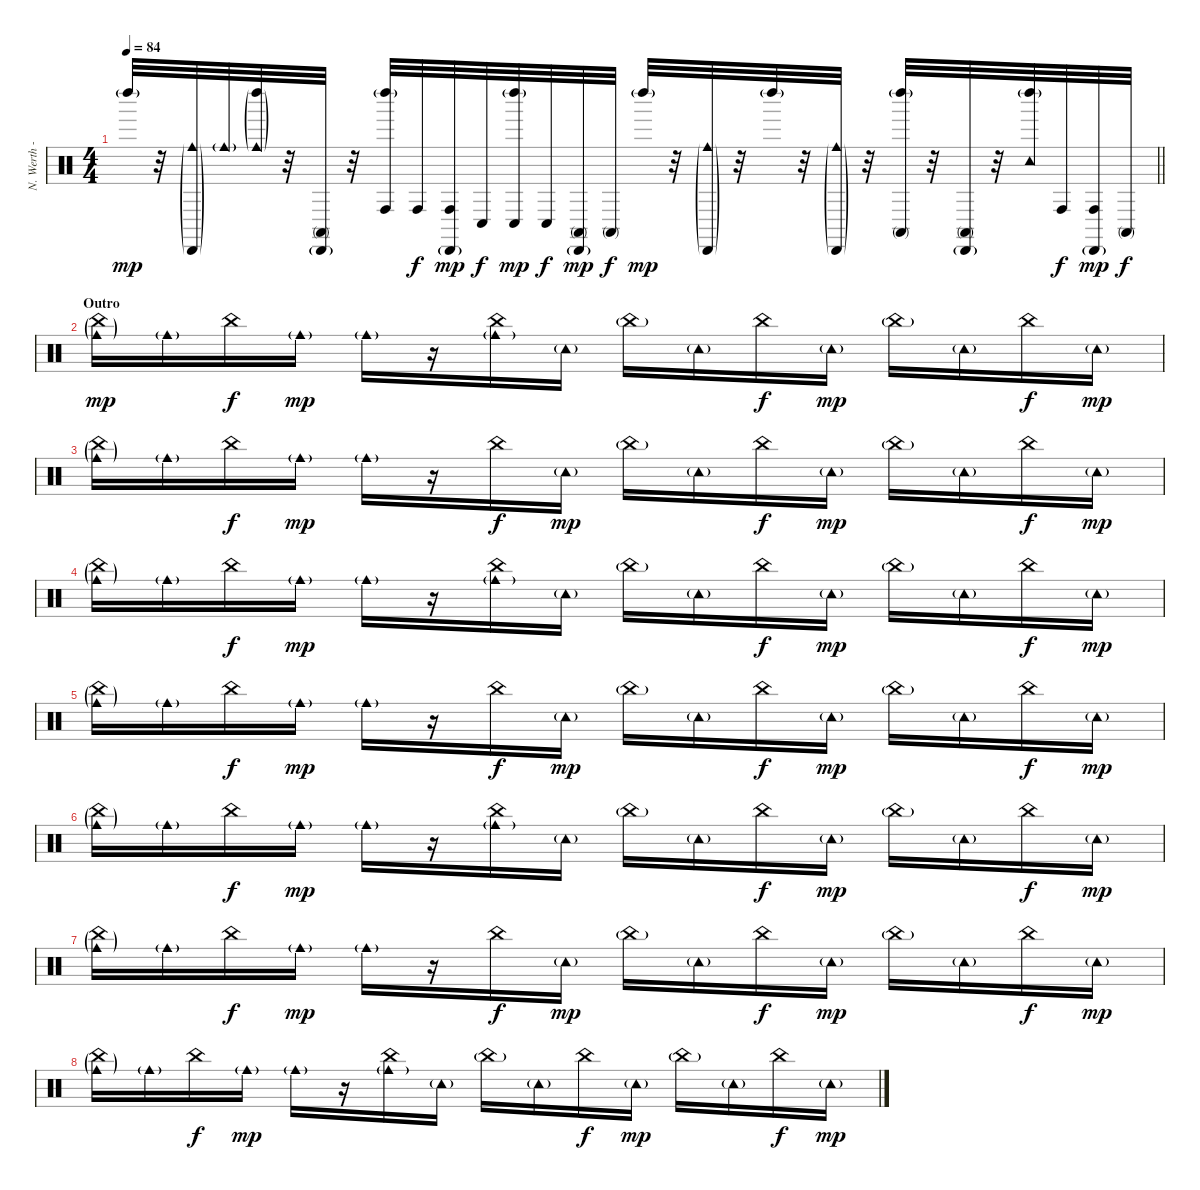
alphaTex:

\track ("N. Werth - Percussion" "N. Werth -") {instrument percussion}
\staff {score}
\articulation defaults
\ts (4 4)
\tempo 84
\clef neutral
\barLineRight lightlight
\ks c "Left Maraca (hit)"{g}.32{dy mp}
r.32 ("Cabasa (hit)"{g} "Cowbell medium (hit)"{g}).32 "Cowbell medium (hit)"{g}.32 ("Left Maraca (hit)"{g} "Cowbell medium (hit)"{g}).32 r.32 ("Cabasa (hit)"{g} "Conga high (mute)").32 r.32 ("Left Maraca (hit)"{g} "Conga high (hit)").32 "Conga high (hit)".32{dy f} ("Cabasa (hit)"{g} "Conga high (hit)").32{dy mp} "Conga low (hit)".32{dy f} ("Left Maraca (hit)"{g} "Conga low (hit)").32{dy mp} "Conga low (hit)".32{dy f} ("Cabasa (hit)"{g} "Conga high (mute)").32{dy mp} "Conga high (mute)".32{dy f} "Left Maraca (hit)"{g}.32{dy mp} r.32 ("Cabasa (hit)"{g} "Cowbell medium (hit)"{g}).32 r.32 "Left Maraca (hit)"{g}.32 r.32 ("Cabasa (hit)"{g} "Cowbell medium (hit)"{g}).32 r.32 ("Left Maraca (hit)"{g} "Conga high (mute)").32 r.32 ("Cabasa (hit)"{g} "Conga high (mute)").32 r.32 ("Left Maraca (hit)"{g} "Tambourine (hit)").32 "Conga high (hit)".32{dy f} ("Cabasa (hit)"{g} "Conga high (hit)").32{dy mp} "Conga high (mute)".32{dy f} |
\section ("" "Outro")
("China (hit)"{g} "Cowbell medium (hit)"{g}).16{dy mp} "Cowbell medium (hit)"{g}.16 "China (hit)".16{dy f} "Cowbell medium (hit)"{g}.16{dy mp} "Cowbell medium (hit)"{g}.16 r.16 ("China (hit)" "Cowbell medium (hit)"{g}).16 "Tambourine (hit)"{g}.16 "China (hit)"{g}.16 "Tambourine (hit)"{g}.16 "China (hit)".16{dy f} "Tambourine (hit)"{g}.16{dy mp} "China (hit)"{g}.16 "Tambourine (hit)"{g}.16 "China (hit)".16{dy f} "Tambourine (hit)"{g}.16{dy mp} |
("China (hit)"{g} "Cowbell medium (hit)"{g}).16 "Cowbell medium (hit)"{g}.16 "China (hit)".16{dy f} "Cowbell medium (hit)"{g}.16{dy mp} "Cowbell medium (hit)"{g}.16 r.16 "China (hit)".16{dy f} "Tambourine (hit)"{g}.16{dy mp} "China (hit)"{g}.16 "Tambourine (hit)"{g}.16 "China (hit)".16{dy f} "Tambourine (hit)"{g}.16{dy mp} "China (hit)"{g}.16 "Tambourine (hit)"{g}.16 "China (hit)".16{dy f} "Tambourine (hit)"{g}.16{dy mp} |
("China (hit)"{g} "Cowbell medium (hit)"{g}).16 "Cowbell medium (hit)"{g}.16 "China (hit)".16{dy f} "Cowbell medium (hit)"{g}.16{dy mp} "Cowbell medium (hit)"{g}.16 r.16 ("China (hit)" "Cowbell medium (hit)"{g}).16 "Tambourine (hit)"{g}.16 "China (hit)"{g}.16 "Tambourine (hit)"{g}.16 "China (hit)".16{dy f} "Tambourine (hit)"{g}.16{dy mp} "China (hit)"{g}.16 "Tambourine (hit)"{g}.16 "China (hit)".16{dy f} "Tambourine (hit)"{g}.16{dy mp} |
("China (hit)"{g} "Cowbell medium (hit)"{g}).16 "Cowbell medium (hit)"{g}.16 "China (hit)".16{dy f} "Cowbell medium (hit)"{g}.16{dy mp} "Cowbell medium (hit)"{g}.16 r.16 "China (hit)".16{dy f} "Tambourine (hit)"{g}.16{dy mp} "China (hit)"{g}.16 "Tambourine (hit)"{g}.16 "China (hit)".16{dy f} "Tambourine (hit)"{g}.16{dy mp} "China (hit)"{g}.16 "Tambourine (hit)"{g}.16 "China (hit)".16{dy f} "Tambourine (hit)"{g}.16{dy mp} |
("China (hit)"{g} "Cowbell medium (hit)"{g}).16 "Cowbell medium (hit)"{g}.16 "China (hit)".16{dy f} "Cowbell medium (hit)"{g}.16{dy mp} "Cowbell medium (hit)"{g}.16 r.16 ("China (hit)" "Cowbell medium (hit)"{g}).16 "Tambourine (hit)"{g}.16 "China (hit)"{g}.16 "Tambourine (hit)"{g}.16 "China (hit)".16{dy f} "Tambourine (hit)"{g}.16{dy mp} "China (hit)"{g}.16 "Tambourine (hit)"{g}.16 "China (hit)".16{dy f} "Tambourine (hit)"{g}.16{dy mp} |
("China (hit)"{g} "Cowbell medium (hit)"{g}).16 "Cowbell medium (hit)"{g}.16 "China (hit)".16{dy f} "Cowbell medium (hit)"{g}.16{dy mp} "Cowbell medium (hit)"{g}.16 r.16 "China (hit)".16{dy f} "Tambourine (hit)"{g}.16{dy mp} "China (hit)"{g}.16 "Tambourine (hit)"{g}.16 "China (hit)".16{dy f} "Tambourine (hit)"{g}.16{dy mp} "China (hit)"{g}.16 "Tambourine (hit)"{g}.16 "China (hit)".16{dy f} "Tambourine (hit)"{g}.16{dy mp} |
("China (hit)"{g} "Cowbell medium (hit)"{g}).16 "Cowbell medium (hit)"{g}.16 "China (hit)".16{dy f} "Cowbell medium (hit)"{g}.16{dy mp} "Cowbell medium (hit)"{g}.16 r.16 ("China (hit)" "Cowbell medium (hit)"{g}).16 "Tambourine (hit)"{g}.16 "China (hit)"{g}.16 "Tambourine (hit)"{g}.16 "China (hit)".16{dy f} "Tambourine (hit)"{g}.16{dy mp} "China (hit)"{g}.16 "Tambourine (hit)"{g}.16 "China (hit)".16{dy f} "Tambourine (hit)"{g}.16{dy mp}
